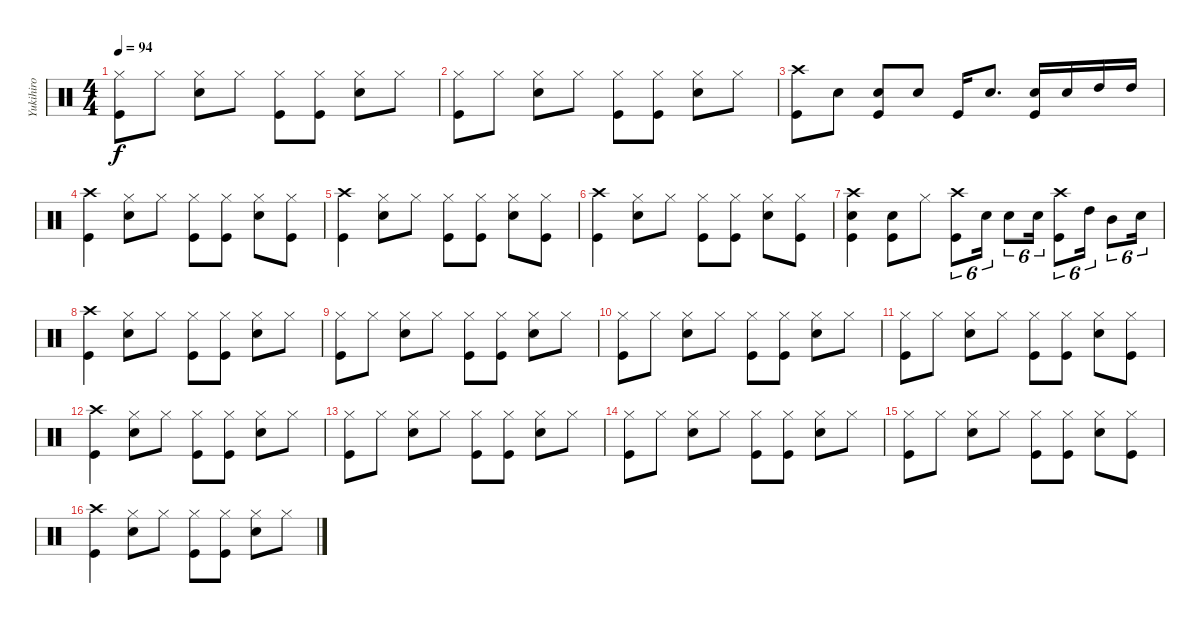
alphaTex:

\track ("Yukihiro" "Yukihiro") {instrument percussion}
\staff {score}
\articulation defaults
\ts (4 4)
\tempo 94
\clef neutral
\ks c
("Hi-Hat (closed)" "Kick (hit)").8{dy f} "Hi-Hat (closed)".8 ("Hi-Hat (closed)" "Snare (hit) 2").8 "Hi-Hat (closed)".8 ("Hi-Hat (closed)" "Kick (hit)").8 ("Kick (hit)" "Hi-Hat (closed)").8 ("Hi-Hat (closed)" "Snare (hit) 2").8 "Hi-Hat (closed)".8 |
("Hi-Hat (closed)" "Kick (hit)").8 "Hi-Hat (closed)".8 ("Hi-Hat (closed)" "Snare (hit) 2").8 "Hi-Hat (closed)".8 ("Hi-Hat (closed)" "Kick (hit)").8 ("Kick (hit)" "Hi-Hat (closed)").8 ("Hi-Hat (closed)" "Snare (hit) 2").8 "Hi-Hat (closed)".8 |
("Crash high (hit)" "Kick (hit)").8 "Snare (hit) 2".8 ("Snare (hit) 2" "Kick (hit)").8 "Snare (hit) 2".8 "Kick (hit)".16 "Snare (hit) 2".8{d} ("Kick (hit)" "Snare (hit) 2").16 "Snare (hit) 2".16 "High Tom (hit)".16 "High Tom (hit)".16 |
("Crash high (hit)" "Kick (hit)").4 ("Hi-Hat (closed)" "Snare (hit) 2").8 "Hi-Hat (closed)".8 ("Hi-Hat (closed)" "Kick (hit)").8 ("Hi-Hat (closed)" "Kick (hit)").8 ("Hi-Hat (closed)" "Snare (hit) 2").8 ("Hi-Hat (closed)" "Kick (hit)").8 |
("Crash high (hit)" "Kick (hit)").4 ("Hi-Hat (closed)" "Snare (hit) 2").8 "Hi-Hat (closed)".8 ("Hi-Hat (closed)" "Kick (hit)").8 ("Hi-Hat (closed)" "Kick (hit)").8 ("Hi-Hat (closed)" "Snare (hit) 2").8 ("Hi-Hat (closed)" "Kick (hit)").8 |
("Crash high (hit)" "Kick (hit)").4 ("Hi-Hat (closed)" "Snare (hit) 2").8 "Hi-Hat (closed)".8 ("Hi-Hat (closed)" "Kick (hit)").8 ("Hi-Hat (closed)" "Kick (hit)").8 ("Hi-Hat (closed)" "Snare (hit) 2").8 ("Hi-Hat (closed)" "Kick (hit)").8 |
("Snare (hit) 2" "Kick (hit)" "Crash high (hit)").4 ("Snare (hit) 2" "Kick (hit)").8 "Hi-Hat (closed)".8 ("Crash high (hit)" "Kick (hit)").8{tu (6 4)} "Snare (hit) 2".16{tu (6 4)} "Snare (hit) 2".8{tu (6 4)} "Snare (hit) 2".16{tu (6 4)} ("Crash high (hit)" "Kick (hit)").8{tu (6 4)} "High Tom (hit)".16{tu (6 4)} "Mid Tom (hit)".8{tu (6 4)} "Snare (hit) 2".16{tu (6 4)} |
("Crash high (hit)" "Kick (hit)").4 ("Hi-Hat (closed)" "Snare (hit) 2").8 "Hi-Hat (closed)".8 ("Hi-Hat (closed)" "Kick (hit)").8 ("Hi-Hat (closed)" "Kick (hit)").8 ("Hi-Hat (closed)" "Snare (hit) 2").8 "Hi-Hat (closed)".8 |
("Hi-Hat (closed)" "Kick (hit)").8 "Hi-Hat (closed)".8 ("Hi-Hat (closed)" "Snare (hit) 2").8 "Hi-Hat (closed)".8 ("Hi-Hat (closed)" "Kick (hit)").8 ("Hi-Hat (closed)" "Kick (hit)").8 ("Hi-Hat (closed)" "Snare (hit) 2").8 "Hi-Hat (closed)".8 |
("Hi-Hat (closed)" "Kick (hit)").8 "Hi-Hat (closed)".8 ("Hi-Hat (closed)" "Snare (hit) 2").8 "Hi-Hat (closed)".8 ("Hi-Hat (closed)" "Kick (hit)").8 ("Hi-Hat (closed)" "Kick (hit)").8 ("Hi-Hat (closed)" "Snare (hit) 2").8 "Hi-Hat (closed)".8 |
("Hi-Hat (closed)" "Kick (hit)").8 "Hi-Hat (closed)".8 ("Hi-Hat (closed)" "Snare (hit) 2").8 "Hi-Hat (closed)".8 ("Hi-Hat (closed)" "Kick (hit)").8 ("Hi-Hat (closed)" "Kick (hit)").8 ("Hi-Hat (closed)" "Snare (hit) 2").8 ("Hi-Hat (closed)" "Kick (hit)").8 |
("Crash high (hit)" "Kick (hit)").4 ("Hi-Hat (closed)" "Snare (hit) 2").8 "Hi-Hat (closed)".8 ("Hi-Hat (closed)" "Kick (hit)").8 ("Hi-Hat (closed)" "Kick (hit)").8 ("Hi-Hat (closed)" "Snare (hit) 2").8 "Hi-Hat (closed)".8 |
("Hi-Hat (closed)" "Kick (hit)").8 "Hi-Hat (closed)".8 ("Hi-Hat (closed)" "Snare (hit) 2").8 "Hi-Hat (closed)".8 ("Hi-Hat (closed)" "Kick (hit)").8 ("Hi-Hat (closed)" "Kick (hit)").8 ("Hi-Hat (closed)" "Snare (hit) 2").8 "Hi-Hat (closed)".8 |
("Hi-Hat (closed)" "Kick (hit)").8 "Hi-Hat (closed)".8 ("Hi-Hat (closed)" "Snare (hit) 2").8 "Hi-Hat (closed)".8 ("Hi-Hat (closed)" "Kick (hit)").8 ("Hi-Hat (closed)" "Kick (hit)").8 ("Hi-Hat (closed)" "Snare (hit) 2").8 "Hi-Hat (closed)".8 |
("Hi-Hat (closed)" "Kick (hit)").8 "Hi-Hat (closed)".8 ("Hi-Hat (closed)" "Snare (hit) 2").8 "Hi-Hat (closed)".8 ("Hi-Hat (closed)" "Kick (hit)").8 ("Hi-Hat (closed)" "Kick (hit)").8 ("Hi-Hat (closed)" "Snare (hit) 2").8 ("Hi-Hat (closed)" "Kick (hit)").8 |
("Crash high (hit)" "Kick (hit)").4 ("Hi-Hat (closed)" "Snare (hit) 2").8 "Hi-Hat (closed)".8 ("Hi-Hat (closed)" "Kick (hit)").8 ("Hi-Hat (closed)" "Kick (hit)").8 ("Hi-Hat (closed)" "Snare (hit) 2").8 "Hi-Hat (closed)".8
